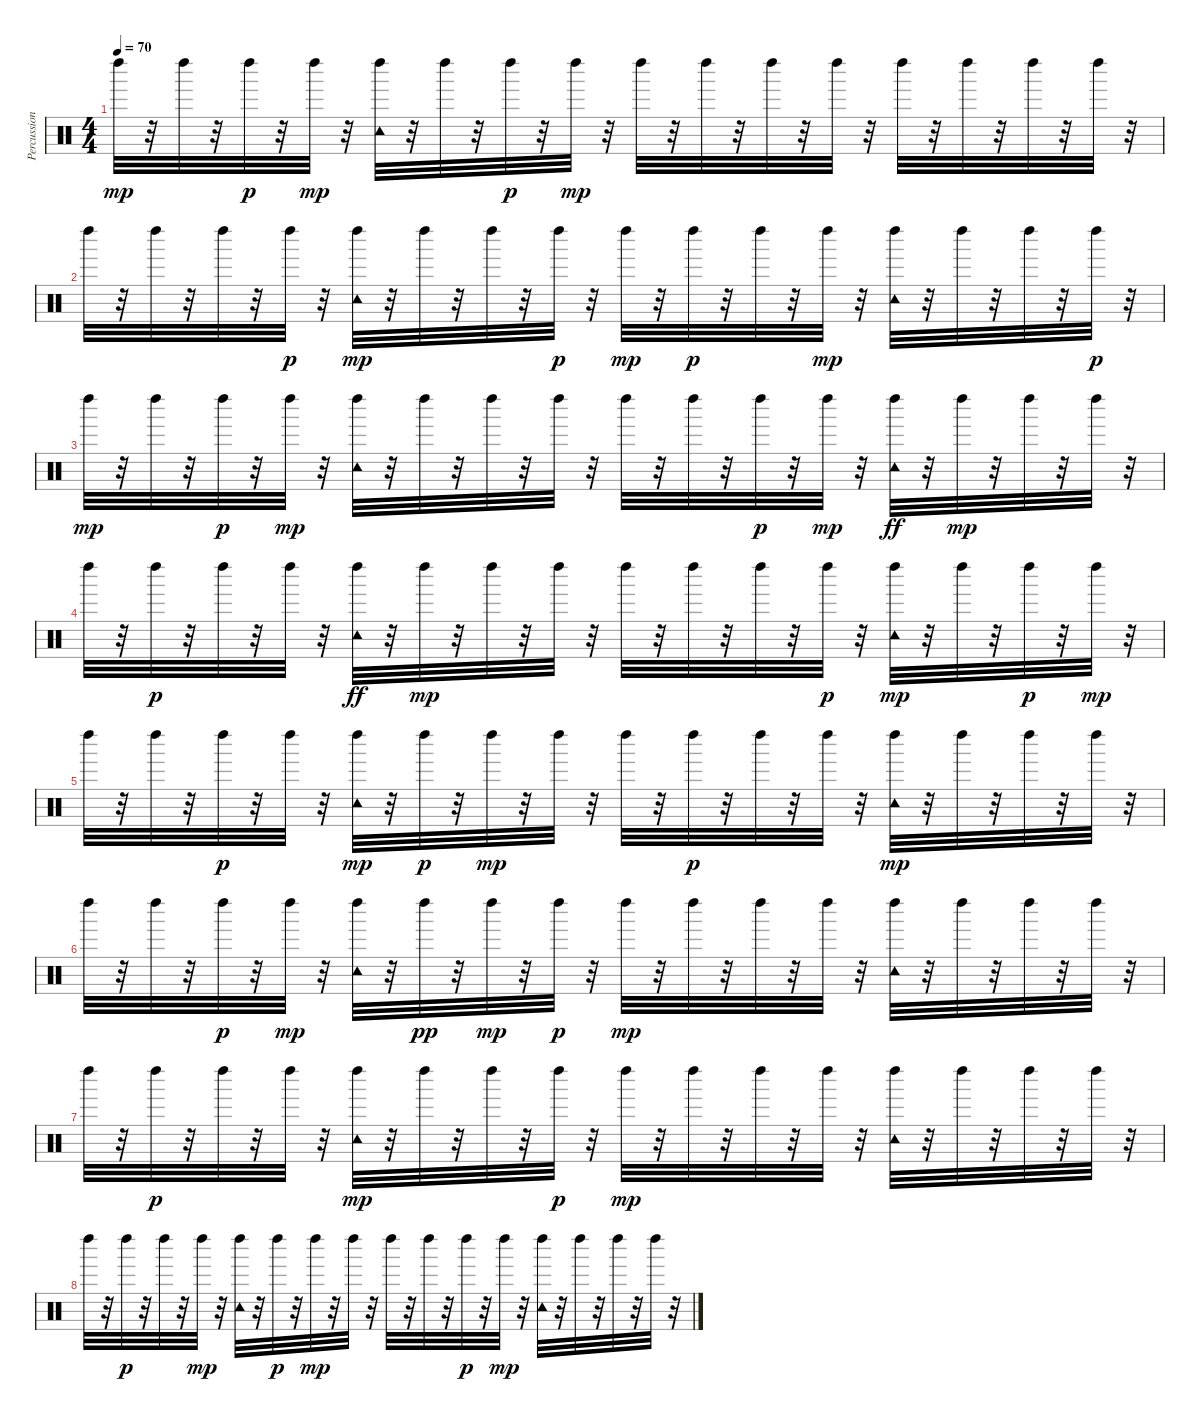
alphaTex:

\track ("Percussion" "Percussion") {instrument percussion}
\staff {score}
\articulation defaults
\ts (4 4)
\tempo 70
\clef neutral
\ks c "Left Maraca (hit)".32{dy mp}
r.32 "Left Maraca (hit)".32 r.32 "Left Maraca (hit)".32{dy p} r.32 "Left Maraca (hit)".32{dy mp} r.32 ("Tambourine (hit)" "Left Maraca (hit)").32 r.32 "Left Maraca (hit)".32 r.32 "Left Maraca (hit)".32{dy p} r.32 "Left Maraca (hit)".32{dy mp} r.32 "Left Maraca (hit)".32 r.32 "Left Maraca (hit)".32 r.32 "Left Maraca (hit)".32 r.32 "Left Maraca (hit)".32 r.32 "Left Maraca (hit)".32 r.32 "Left Maraca (hit)".32 r.32 "Left Maraca (hit)".32 r.32 "Left Maraca (hit)".32 r.32 |
"Left Maraca (hit)".32 r.32 "Left Maraca (hit)".32 r.32 "Left Maraca (hit)".32 r.32 "Left Maraca (hit)".32{dy p} r.32 ("Tambourine (hit)" "Left Maraca (hit)").32{dy mp} r.32 "Left Maraca (hit)".32 r.32 "Left Maraca (hit)".32 r.32 "Left Maraca (hit)".32{dy p} r.32 "Left Maraca (hit)".32{dy mp} r.32 "Left Maraca (hit)".32{dy p} r.32 "Left Maraca (hit)".32 r.32 "Left Maraca (hit)".32{dy mp} r.32 ("Tambourine (hit)" "Left Maraca (hit)").32 r.32 "Left Maraca (hit)".32 r.32 "Left Maraca (hit)".32 r.32 "Left Maraca (hit)".32{dy p} r.32 |
"Left Maraca (hit)".32{dy mp} r.32 "Left Maraca (hit)".32 r.32 "Left Maraca (hit)".32{dy p} r.32 "Left Maraca (hit)".32{dy mp} r.32 ("Tambourine (hit)" "Left Maraca (hit)").32 r.32 "Left Maraca (hit)".32 r.32 "Left Maraca (hit)".32 r.32 "Left Maraca (hit)".32 r.32 "Left Maraca (hit)".32 r.32 "Left Maraca (hit)".32 r.32 "Left Maraca (hit)".32{dy p} r.32 "Left Maraca (hit)".32{dy mp} r.32 ("Left Maraca (hit)" "Tambourine (hit)").32{dy ff} r.32 "Left Maraca (hit)".32{dy mp} r.32 "Left Maraca (hit)".32 r.32 "Left Maraca (hit)".32 r.32 |
"Left Maraca (hit)".32 r.32 "Left Maraca (hit)".32{dy p} r.32 "Left Maraca (hit)".32 r.32 "Left Maraca (hit)".32 r.32 ("Left Maraca (hit)" "Tambourine (hit)").32{dy ff} r.32 "Left Maraca (hit)".32{dy mp} r.32 "Left Maraca (hit)".32 r.32 "Left Maraca (hit)".32 r.32 "Left Maraca (hit)".32 r.32 "Left Maraca (hit)".32 r.32 "Left Maraca (hit)".32 r.32 "Left Maraca (hit)".32{dy p} r.32 ("Tambourine (hit)" "Left Maraca (hit)").32{dy mp} r.32 "Left Maraca (hit)".32 r.32 "Left Maraca (hit)".32{dy p} r.32 "Left Maraca (hit)".32{dy mp} r.32 |
"Left Maraca (hit)".32 r.32 "Left Maraca (hit)".32 r.32 "Left Maraca (hit)".32{dy p} r.32 "Left Maraca (hit)".32 r.32 ("Tambourine (hit)" "Left Maraca (hit)").32{dy mp} r.32 "Left Maraca (hit)".32{dy p} r.32 "Left Maraca (hit)".32{dy mp} r.32 "Left Maraca (hit)".32 r.32 "Left Maraca (hit)".32 r.32 "Left Maraca (hit)".32{dy p} r.32 "Left Maraca (hit)".32 r.32 "Left Maraca (hit)".32 r.32 ("Tambourine (hit)" "Left Maraca (hit)").32{dy mp} r.32 "Left Maraca (hit)".32 r.32 "Left Maraca (hit)".32 r.32 "Left Maraca (hit)".32 r.32 |
"Left Maraca (hit)".32 r.32 "Left Maraca (hit)".32 r.32 "Left Maraca (hit)".32{dy p} r.32 "Left Maraca (hit)".32{dy mp} r.32 ("Tambourine (hit)" "Left Maraca (hit)").32 r.32 "Left Maraca (hit)".32{dy pp} r.32 "Left Maraca (hit)".32{dy mp} r.32 "Left Maraca (hit)".32{dy p} r.32 "Left Maraca (hit)".32{dy mp} r.32 "Left Maraca (hit)".32 r.32 "Left Maraca (hit)".32 r.32 "Left Maraca (hit)".32 r.32 ("Tambourine (hit)" "Left Maraca (hit)").32 r.32 "Left Maraca (hit)".32 r.32 "Left Maraca (hit)".32 r.32 "Left Maraca (hit)".32 r.32 |
"Left Maraca (hit)".32 r.32 "Left Maraca (hit)".32{dy p} r.32 "Left Maraca (hit)".32 r.32 "Left Maraca (hit)".32 r.32 ("Tambourine (hit)" "Left Maraca (hit)").32{dy mp} r.32 "Left Maraca (hit)".32 r.32 "Left Maraca (hit)".32 r.32 "Left Maraca (hit)".32{dy p} r.32 "Left Maraca (hit)".32{dy mp} r.32 "Left Maraca (hit)".32 r.32 "Left Maraca (hit)".32 r.32 "Left Maraca (hit)".32 r.32 ("Tambourine (hit)" "Left Maraca (hit)").32 r.32 "Left Maraca (hit)".32 r.32 "Left Maraca (hit)".32 r.32 "Left Maraca (hit)".32 r.32 |
"Left Maraca (hit)".32 r.32 "Left Maraca (hit)".32{dy p} r.32 "Left Maraca (hit)".32 r.32 "Left Maraca (hit)".32{dy mp} r.32 ("Tambourine (hit)" "Left Maraca (hit)").32 r.32 "Left Maraca (hit)".32{dy p} r.32 "Left Maraca (hit)".32{dy mp} r.32 "Left Maraca (hit)".32 r.32 "Left Maraca (hit)".32 r.32 "Left Maraca (hit)".32 r.32 "Left Maraca (hit)".32{dy p} r.32 "Left Maraca (hit)".32{dy mp} r.32 ("Tambourine (hit)" "Left Maraca (hit)").32 r.32 "Left Maraca (hit)".32 r.32 "Left Maraca (hit)".32 r.32 "Left Maraca (hit)".32 r.32
